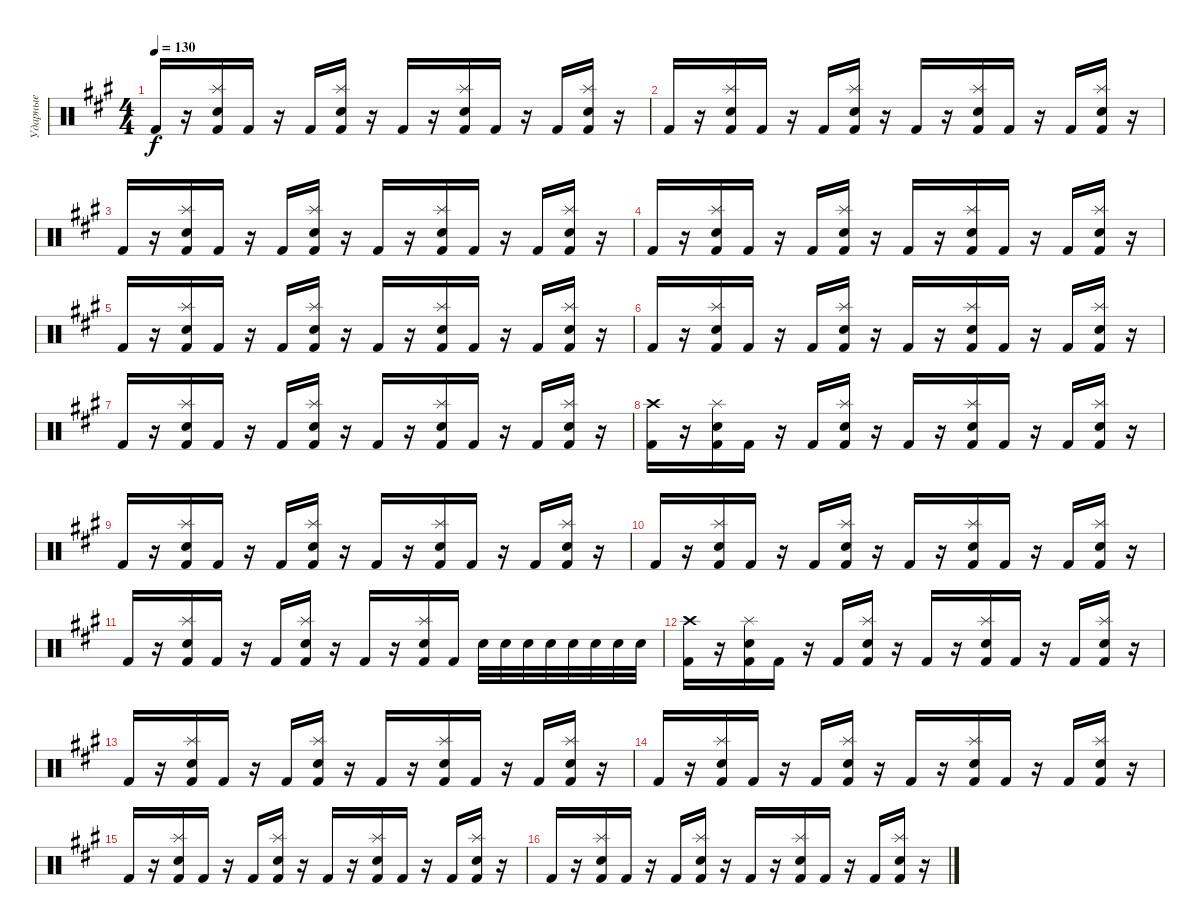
\track ("Ударные" "Ударные") {instrument percussion}
\staff {score}
\articulation defaults
\ts (4 4)
\tempo 130
\clef neutral
\ks f#minor "Kick (hit) 2".16{dy f}
r.16 ("Splash (hit)" "Snare (hit) 2" "Kick (hit) 2").16 "Kick (hit) 2".16 r.16 "Kick (hit) 2".16 ("Splash (hit)" "Snare (hit) 2" "Kick (hit) 2").16 r.16 "Kick (hit) 2".16 r.16 ("Splash (hit)" "Snare (hit) 2" "Kick (hit) 2").16 "Kick (hit) 2".16 r.16 "Kick (hit) 2".16 ("Splash (hit)" "Snare (hit) 2" "Kick (hit) 2").16 r.16 |
"Kick (hit) 2".16 r.16 ("Splash (hit)" "Snare (hit) 2" "Kick (hit) 2").16 "Kick (hit) 2".16 r.16 "Kick (hit) 2".16 ("Splash (hit)" "Snare (hit) 2" "Kick (hit) 2").16 r.16 "Kick (hit) 2".16 r.16 ("Splash (hit)" "Snare (hit) 2" "Kick (hit) 2").16 "Kick (hit) 2".16 r.16 "Kick (hit) 2".16 ("Splash (hit)" "Snare (hit) 2" "Kick (hit) 2").16 r.16 |
"Kick (hit) 2".16 r.16 ("Splash (hit)" "Snare (hit) 2" "Kick (hit) 2").16 "Kick (hit) 2".16 r.16 "Kick (hit) 2".16 ("Splash (hit)" "Snare (hit) 2" "Kick (hit) 2").16 r.16 "Kick (hit) 2".16 r.16 ("Splash (hit)" "Snare (hit) 2" "Kick (hit) 2").16 "Kick (hit) 2".16 r.16 "Kick (hit) 2".16 ("Splash (hit)" "Snare (hit) 2" "Kick (hit) 2").16 r.16 |
"Kick (hit) 2".16 r.16 ("Splash (hit)" "Snare (hit) 2" "Kick (hit) 2").16 "Kick (hit) 2".16 r.16 "Kick (hit) 2".16 ("Splash (hit)" "Snare (hit) 2" "Kick (hit) 2").16 r.16 "Kick (hit) 2".16 r.16 ("Splash (hit)" "Snare (hit) 2" "Kick (hit) 2").16 "Kick (hit) 2".16 r.16 "Kick (hit) 2".16 ("Splash (hit)" "Snare (hit) 2" "Kick (hit) 2").16 r.16 |
"Kick (hit) 2".16 r.16 ("Splash (hit)" "Snare (hit) 2" "Kick (hit) 2").16 "Kick (hit) 2".16 r.16 "Kick (hit) 2".16 ("Splash (hit)" "Snare (hit) 2" "Kick (hit) 2").16 r.16 "Kick (hit) 2".16 r.16 ("Splash (hit)" "Snare (hit) 2" "Kick (hit) 2").16 "Kick (hit) 2".16 r.16 "Kick (hit) 2".16 ("Splash (hit)" "Snare (hit) 2" "Kick (hit) 2").16 r.16 |
"Kick (hit) 2".16 r.16 ("Splash (hit)" "Snare (hit) 2" "Kick (hit) 2").16 "Kick (hit) 2".16 r.16 "Kick (hit) 2".16 ("Splash (hit)" "Snare (hit) 2" "Kick (hit) 2").16 r.16 "Kick (hit) 2".16 r.16 ("Splash (hit)" "Snare (hit) 2" "Kick (hit) 2").16 "Kick (hit) 2".16 r.16 "Kick (hit) 2".16 ("Splash (hit)" "Snare (hit) 2" "Kick (hit) 2").16 r.16 |
"Kick (hit) 2".16 r.16 ("Splash (hit)" "Snare (hit) 2" "Kick (hit) 2").16 "Kick (hit) 2".16 r.16 "Kick (hit) 2".16 ("Splash (hit)" "Snare (hit) 2" "Kick (hit) 2").16 r.16 "Kick (hit) 2".16 r.16 ("Splash (hit)" "Snare (hit) 2" "Kick (hit) 2").16 "Kick (hit) 2".16 r.16 "Kick (hit) 2".16 ("Splash (hit)" "Snare (hit) 2" "Kick (hit) 2").16 r.16 |
("Crash high (hit)" "Kick (hit) 2").16 r.16 ("Splash (hit)" "Snare (hit) 2" "Kick (hit) 2").16 "Kick (hit) 2".16 r.16 "Kick (hit) 2".16 ("Splash (hit)" "Snare (hit) 2" "Kick (hit) 2").16 r.16 "Kick (hit) 2".16 r.16 ("Splash (hit)" "Snare (hit) 2" "Kick (hit) 2").16 "Kick (hit) 2".16 r.16 "Kick (hit) 2".16 ("Splash (hit)" "Snare (hit) 2" "Kick (hit) 2").16 r.16 |
"Kick (hit) 2".16 r.16 ("Splash (hit)" "Snare (hit) 2" "Kick (hit) 2").16 "Kick (hit) 2".16 r.16 "Kick (hit) 2".16 ("Splash (hit)" "Snare (hit) 2" "Kick (hit) 2").16 r.16 "Kick (hit) 2".16 r.16 ("Splash (hit)" "Snare (hit) 2" "Kick (hit) 2").16 "Kick (hit) 2".16 r.16 "Kick (hit) 2".16 ("Splash (hit)" "Snare (hit) 2" "Kick (hit) 2").16 r.16 |
"Kick (hit) 2".16 r.16 ("Splash (hit)" "Snare (hit) 2" "Kick (hit) 2").16 "Kick (hit) 2".16 r.16 "Kick (hit) 2".16 ("Splash (hit)" "Snare (hit) 2" "Kick (hit) 2").16 r.16 "Kick (hit) 2".16 r.16 ("Splash (hit)" "Snare (hit) 2" "Kick (hit) 2").16 "Kick (hit) 2".16 r.16 "Kick (hit) 2".16 ("Splash (hit)" "Snare (hit) 2" "Kick (hit) 2").16 r.16 |
"Kick (hit) 2".16 r.16 ("Splash (hit)" "Snare (hit) 2" "Kick (hit) 2").16 "Kick (hit) 2".16 r.16 "Kick (hit) 2".16 ("Splash (hit)" "Snare (hit) 2" "Kick (hit) 2").16 r.16 "Kick (hit) 2".16 r.16 ("Splash (hit)" "Snare (hit) 2" "Kick (hit) 2").16 "Kick (hit) 2".16 "Snare (hit) 2".32 "Snare (hit) 2".32 "Snare (hit) 2".32 "Snare (hit) 2".32 "Snare (hit) 2".32 "Snare (hit) 2".32 "Snare (hit) 2".32 "Snare (hit) 2".32 |
("Crash high (hit)" "Kick (hit) 2").16 r.16 ("Splash (hit)" "Snare (hit) 2" "Kick (hit) 2").16 "Kick (hit) 2".16 r.16 "Kick (hit) 2".16 ("Splash (hit)" "Snare (hit) 2" "Kick (hit) 2").16 r.16 "Kick (hit) 2".16 r.16 ("Splash (hit)" "Snare (hit) 2" "Kick (hit) 2").16 "Kick (hit) 2".16 r.16 "Kick (hit) 2".16 ("Splash (hit)" "Snare (hit) 2" "Kick (hit) 2").16 r.16 |
"Kick (hit) 2".16 r.16 ("Splash (hit)" "Snare (hit) 2" "Kick (hit) 2").16 "Kick (hit) 2".16 r.16 "Kick (hit) 2".16 ("Splash (hit)" "Snare (hit) 2" "Kick (hit) 2").16 r.16 "Kick (hit) 2".16 r.16 ("Splash (hit)" "Snare (hit) 2" "Kick (hit) 2").16 "Kick (hit) 2".16 r.16 "Kick (hit) 2".16 ("Splash (hit)" "Snare (hit) 2" "Kick (hit) 2").16 r.16 |
"Kick (hit) 2".16 r.16 ("Splash (hit)" "Snare (hit) 2" "Kick (hit) 2").16 "Kick (hit) 2".16 r.16 "Kick (hit) 2".16 ("Splash (hit)" "Snare (hit) 2" "Kick (hit) 2").16 r.16 "Kick (hit) 2".16 r.16 ("Splash (hit)" "Snare (hit) 2" "Kick (hit) 2").16 "Kick (hit) 2".16 r.16 "Kick (hit) 2".16 ("Splash (hit)" "Snare (hit) 2" "Kick (hit) 2").16 r.16 |
"Kick (hit) 2".16 r.16 ("Splash (hit)" "Snare (hit) 2" "Kick (hit) 2").16 "Kick (hit) 2".16 r.16 "Kick (hit) 2".16 ("Splash (hit)" "Snare (hit) 2" "Kick (hit) 2").16 r.16 "Kick (hit) 2".16 r.16 ("Splash (hit)" "Snare (hit) 2" "Kick (hit) 2").16 "Kick (hit) 2".16 r.16 "Kick (hit) 2".16 ("Splash (hit)" "Snare (hit) 2" "Kick (hit) 2").16 r.16 |
"Kick (hit) 2".16 r.16 ("Splash (hit)" "Snare (hit) 2" "Kick (hit) 2").16 "Kick (hit) 2".16 r.16 "Kick (hit) 2".16 ("Splash (hit)" "Snare (hit) 2" "Kick (hit) 2").16 r.16 "Kick (hit) 2".16 r.16 ("Splash (hit)" "Snare (hit) 2" "Kick (hit) 2").16 "Kick (hit) 2".16 r.16 "Kick (hit) 2".16 ("Splash (hit)" "Snare (hit) 2" "Kick (hit) 2").16 r.16
